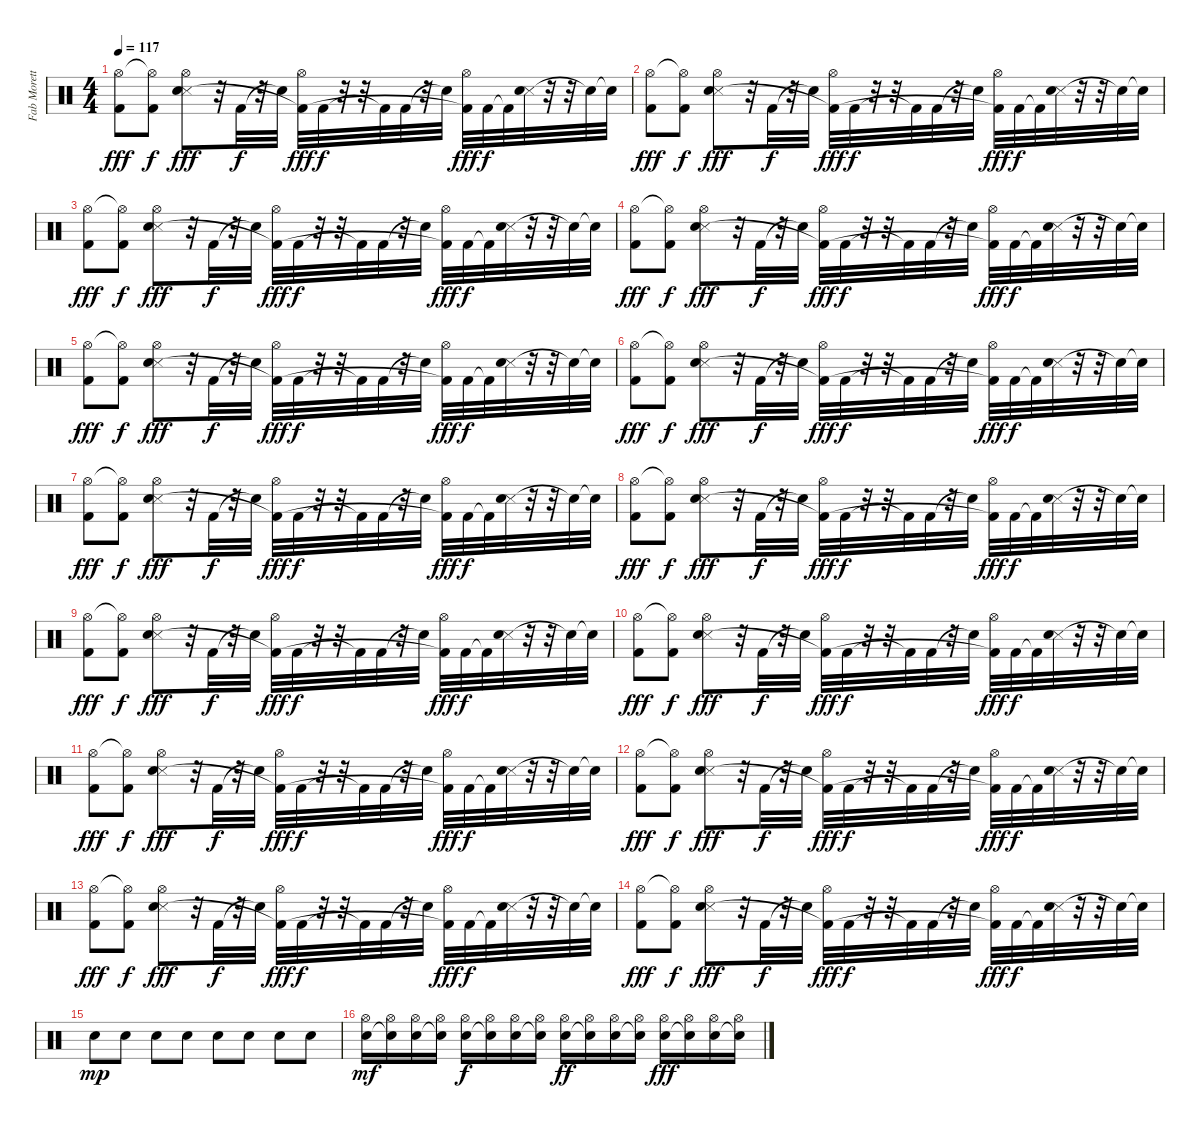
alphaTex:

\track ("Fab Moretti" "Fab Morett") {instrument percussion}
\staff {score}
\articulation defaults
\ts (4 4)
\tempo 117
\clef neutral
\ks c
("Hi-Hat (open)" "Kick (hit) 2").8{dy fff} ("Hi-Hat (open)"{t} "Kick (hit) 2").8{dy f} ("Hi-Hat (open)" "Snare (side stick) 3" "Snare (hit) 2").8{dy fff} r.32 "Kick (hit) 2".32{dy f} r.32 "Snare (hit)"{t}.32 ("Hi-Hat (open)" "Kick (hit) 2"{t}).32{dy fff} "Kick (hit) 2".32{dy f} r.32 r.32 "Kick (hit) 2"{t}.32 "Kick (hit) 2".32 r.32 "Snare (hit)"{t}.32 ("Hi-Hat (open)" "Kick (hit) 2"{t}).32{dy fff} "Kick (hit) 2".32{dy f} "Kick (hit) 2"{t}.32 ("Snare (side stick) 3" "Snare (hit) 2").32 r.32 r.32 "Snare (hit)"{t}.32 "Snare (hit)"{t}.32 |
("Hi-Hat (open)" "Kick (hit) 2").8{dy fff} ("Hi-Hat (open)"{t} "Kick (hit) 2").8{dy f} ("Hi-Hat (open)" "Snare (side stick) 3" "Snare (hit) 2").8{dy fff} r.32 "Kick (hit) 2".32{dy f} r.32 "Snare (hit)"{t}.32 ("Hi-Hat (open)" "Kick (hit) 2"{t}).32{dy fff} "Kick (hit) 2".32{dy f} r.32 r.32 "Kick (hit) 2"{t}.32 "Kick (hit) 2".32 r.32 "Snare (hit)"{t}.32 ("Hi-Hat (open)" "Kick (hit) 2"{t}).32{dy fff} "Kick (hit) 2".32{dy f} "Kick (hit) 2"{t}.32 ("Snare (side stick) 3" "Snare (hit) 2").32 r.32 r.32 "Snare (hit)"{t}.32 "Snare (hit)"{t}.32 |
("Hi-Hat (open)" "Kick (hit) 2").8{dy fff} ("Hi-Hat (open)"{t} "Kick (hit) 2").8{dy f} ("Hi-Hat (open)" "Snare (side stick) 3" "Snare (hit) 2").8{dy fff} r.32 "Kick (hit) 2".32{dy f} r.32 "Snare (hit)"{t}.32 ("Hi-Hat (open)" "Kick (hit) 2"{t}).32{dy fff} "Kick (hit) 2".32{dy f} r.32 r.32 "Kick (hit) 2"{t}.32 "Kick (hit) 2".32 r.32 "Snare (hit)"{t}.32 ("Hi-Hat (open)" "Kick (hit) 2"{t}).32{dy fff} "Kick (hit) 2".32{dy f} "Kick (hit) 2"{t}.32 ("Snare (side stick) 3" "Snare (hit) 2").32 r.32 r.32 "Snare (hit)"{t}.32 "Snare (hit)"{t}.32 |
("Hi-Hat (open)" "Kick (hit) 2").8{dy fff} ("Hi-Hat (open)"{t} "Kick (hit) 2").8{dy f} ("Hi-Hat (open)" "Snare (side stick) 3" "Snare (hit) 2").8{dy fff} r.32 "Kick (hit) 2".32{dy f} r.32 "Snare (hit)"{t}.32 ("Hi-Hat (open)" "Kick (hit) 2"{t}).32{dy fff} "Kick (hit) 2".32{dy f} r.32 r.32 "Kick (hit) 2"{t}.32 "Kick (hit) 2".32 r.32 "Snare (hit)"{t}.32 ("Hi-Hat (open)" "Kick (hit) 2"{t}).32{dy fff} "Kick (hit) 2".32{dy f} "Kick (hit) 2"{t}.32 ("Snare (side stick) 3" "Snare (hit) 2").32 r.32 r.32 "Snare (hit)"{t}.32 "Snare (hit)"{t}.32 |
("Hi-Hat (open)" "Kick (hit) 2").8{dy fff} ("Hi-Hat (open)"{t} "Kick (hit) 2").8{dy f} ("Hi-Hat (open)" "Snare (side stick) 3" "Snare (hit) 2").8{dy fff} r.32 "Kick (hit) 2".32{dy f} r.32 "Snare (hit)"{t}.32 ("Hi-Hat (open)" "Kick (hit) 2"{t}).32{dy fff} "Kick (hit) 2".32{dy f} r.32 r.32 "Kick (hit) 2"{t}.32 "Kick (hit) 2".32 r.32 "Snare (hit)"{t}.32 ("Hi-Hat (open)" "Kick (hit) 2"{t}).32{dy fff} "Kick (hit) 2".32{dy f} "Kick (hit) 2"{t}.32 ("Snare (side stick) 3" "Snare (hit) 2").32 r.32 r.32 "Snare (hit)"{t}.32 "Snare (hit)"{t}.32 |
("Hi-Hat (open)" "Kick (hit) 2").8{dy fff} ("Hi-Hat (open)"{t} "Kick (hit) 2").8{dy f} ("Hi-Hat (open)" "Snare (side stick) 3" "Snare (hit) 2").8{dy fff} r.32 "Kick (hit) 2".32{dy f} r.32 "Snare (hit)"{t}.32 ("Hi-Hat (open)" "Kick (hit) 2"{t}).32{dy fff} "Kick (hit) 2".32{dy f} r.32 r.32 "Kick (hit) 2"{t}.32 "Kick (hit) 2".32 r.32 "Snare (hit)"{t}.32 ("Hi-Hat (open)" "Kick (hit) 2"{t}).32{dy fff} "Kick (hit) 2".32{dy f} "Kick (hit) 2"{t}.32 ("Snare (side stick) 3" "Snare (hit) 2").32 r.32 r.32 "Snare (hit)"{t}.32 "Snare (hit)"{t}.32 |
("Hi-Hat (open)" "Kick (hit) 2").8{dy fff} ("Hi-Hat (open)"{t} "Kick (hit) 2").8{dy f} ("Hi-Hat (open)" "Snare (side stick) 3" "Snare (hit) 2").8{dy fff} r.32 "Kick (hit) 2".32{dy f} r.32 "Snare (hit)"{t}.32 ("Hi-Hat (open)" "Kick (hit) 2"{t}).32{dy fff} "Kick (hit) 2".32{dy f} r.32 r.32 "Kick (hit) 2"{t}.32 "Kick (hit) 2".32 r.32 "Snare (hit)"{t}.32 ("Hi-Hat (open)" "Kick (hit) 2"{t}).32{dy fff} "Kick (hit) 2".32{dy f} "Kick (hit) 2"{t}.32 ("Snare (side stick) 3" "Snare (hit) 2").32 r.32 r.32 "Snare (hit)"{t}.32 "Snare (hit)"{t}.32 |
("Hi-Hat (open)" "Kick (hit) 2").8{dy fff} ("Hi-Hat (open)"{t} "Kick (hit) 2").8{dy f} ("Hi-Hat (open)" "Snare (side stick) 3" "Snare (hit) 2").8{dy fff} r.32 "Kick (hit) 2".32{dy f} r.32 "Snare (hit)"{t}.32 ("Hi-Hat (open)" "Kick (hit) 2"{t}).32{dy fff} "Kick (hit) 2".32{dy f} r.32 r.32 "Kick (hit) 2"{t}.32 "Kick (hit) 2".32 r.32 "Snare (hit)"{t}.32 ("Hi-Hat (open)" "Kick (hit) 2"{t}).32{dy fff} "Kick (hit) 2".32{dy f} "Kick (hit) 2"{t}.32 ("Snare (side stick) 3" "Snare (hit) 2").32 r.32 r.32 "Snare (hit)"{t}.32 "Snare (hit)"{t}.32 |
("Hi-Hat (open)" "Kick (hit) 2").8{dy fff} ("Hi-Hat (open)"{t} "Kick (hit) 2").8{dy f} ("Hi-Hat (open)" "Snare (side stick) 3" "Snare (hit) 2").8{dy fff} r.32 "Kick (hit) 2".32{dy f} r.32 "Snare (hit)"{t}.32 ("Hi-Hat (open)" "Kick (hit) 2"{t}).32{dy fff} "Kick (hit) 2".32{dy f} r.32 r.32 "Kick (hit) 2"{t}.32 "Kick (hit) 2".32 r.32 "Snare (hit)"{t}.32 ("Hi-Hat (open)" "Kick (hit) 2"{t}).32{dy fff} "Kick (hit) 2".32{dy f} "Kick (hit) 2"{t}.32 ("Snare (side stick) 3" "Snare (hit) 2").32 r.32 r.32 "Snare (hit)"{t}.32 "Snare (hit)"{t}.32 |
("Hi-Hat (open)" "Kick (hit) 2").8{dy fff} ("Hi-Hat (open)"{t} "Kick (hit) 2").8{dy f} ("Hi-Hat (open)" "Snare (side stick) 3" "Snare (hit) 2").8{dy fff} r.32 "Kick (hit) 2".32{dy f} r.32 "Snare (hit)"{t}.32 ("Hi-Hat (open)" "Kick (hit) 2"{t}).32{dy fff} "Kick (hit) 2".32{dy f} r.32 r.32 "Kick (hit) 2"{t}.32 "Kick (hit) 2".32 r.32 "Snare (hit)"{t}.32 ("Hi-Hat (open)" "Kick (hit) 2"{t}).32{dy fff} "Kick (hit) 2".32{dy f} "Kick (hit) 2"{t}.32 ("Snare (side stick) 3" "Snare (hit) 2").32 r.32 r.32 "Snare (hit)"{t}.32 "Snare (hit)"{t}.32 |
("Hi-Hat (open)" "Kick (hit) 2").8{dy fff} ("Hi-Hat (open)"{t} "Kick (hit) 2").8{dy f} ("Hi-Hat (open)" "Snare (side stick) 3" "Snare (hit) 2").8{dy fff} r.32 "Kick (hit) 2".32{dy f} r.32 "Snare (hit)"{t}.32 ("Hi-Hat (open)" "Kick (hit) 2"{t}).32{dy fff} "Kick (hit) 2".32{dy f} r.32 r.32 "Kick (hit) 2"{t}.32 "Kick (hit) 2".32 r.32 "Snare (hit)"{t}.32 ("Hi-Hat (open)" "Kick (hit) 2"{t}).32{dy fff} "Kick (hit) 2".32{dy f} "Kick (hit) 2"{t}.32 ("Snare (side stick) 3" "Snare (hit) 2").32 r.32 r.32 "Snare (hit)"{t}.32 "Snare (hit)"{t}.32 |
("Hi-Hat (open)" "Kick (hit) 2").8{dy fff} ("Hi-Hat (open)"{t} "Kick (hit) 2").8{dy f} ("Hi-Hat (open)" "Snare (side stick) 3" "Snare (hit) 2").8{dy fff} r.32 "Kick (hit) 2".32{dy f} r.32 "Snare (hit)"{t}.32 ("Hi-Hat (open)" "Kick (hit) 2"{t}).32{dy fff} "Kick (hit) 2".32{dy f} r.32 r.32 "Kick (hit) 2"{t}.32 "Kick (hit) 2".32 r.32 "Snare (hit)"{t}.32 ("Hi-Hat (open)" "Kick (hit) 2"{t}).32{dy fff} "Kick (hit) 2".32{dy f} "Kick (hit) 2"{t}.32 ("Snare (side stick) 3" "Snare (hit) 2").32 r.32 r.32 "Snare (hit)"{t}.32 "Snare (hit)"{t}.32 |
("Hi-Hat (open)" "Kick (hit) 2").8{dy fff} ("Hi-Hat (open)"{t} "Kick (hit) 2").8{dy f} ("Hi-Hat (open)" "Snare (side stick) 3" "Snare (hit) 2").8{dy fff} r.32 "Kick (hit) 2".32{dy f} r.32 "Snare (hit)"{t}.32 ("Hi-Hat (open)" "Kick (hit) 2"{t}).32{dy fff} "Kick (hit) 2".32{dy f} r.32 r.32 "Kick (hit) 2"{t}.32 "Kick (hit) 2".32 r.32 "Snare (hit)"{t}.32 ("Hi-Hat (open)" "Kick (hit) 2"{t}).32{dy fff} "Kick (hit) 2".32{dy f} "Kick (hit) 2"{t}.32 ("Snare (side stick) 3" "Snare (hit) 2").32 r.32 r.32 "Snare (hit)"{t}.32 "Snare (hit)"{t}.32 |
("Hi-Hat (open)" "Kick (hit) 2").8{dy fff} ("Hi-Hat (open)"{t} "Kick (hit) 2").8{dy f} ("Hi-Hat (open)" "Snare (side stick) 3" "Snare (hit) 2").8{dy fff} r.32 "Kick (hit) 2".32{dy f} r.32 "Snare (hit)"{t}.32 ("Hi-Hat (open)" "Kick (hit) 2"{t}).32{dy fff} "Kick (hit) 2".32{dy f} r.32 r.32 "Kick (hit) 2"{t}.32 "Kick (hit) 2".32 r.32 "Snare (hit)"{t}.32 ("Hi-Hat (open)" "Kick (hit) 2"{t}).32{dy fff} "Kick (hit) 2".32{dy f} "Kick (hit) 2"{t}.32 ("Snare (side stick) 3" "Snare (hit) 2").32 r.32 r.32 "Snare (hit)"{t}.32 "Snare (hit)"{t}.32 |
"Snare (hit) 2".8{dy mp} "Snare (hit) 2".8 "Snare (hit) 2".8 "Snare (hit) 2".8 "Snare (hit) 2".8 "Snare (hit) 2".8 "Snare (hit) 2".8 "Snare (hit) 2".8 |
("Snare (hit) 2" "Hi-Hat (open)").16{dy mf} ("Snare (hit) 2"{t} "Hi-Hat (open)").16 ("Snare (hit) 2" "Hi-Hat (open)").16 ("Snare (hit) 2"{t} "Hi-Hat (open)").16 ("Snare (hit) 2" "Hi-Hat (open)").16{dy f} ("Snare (hit) 2"{t} "Hi-Hat (open)").16 ("Snare (hit) 2" "Hi-Hat (open)").16 ("Snare (hit) 2"{t} "Hi-Hat (open)").16 ("Snare (hit) 2" "Hi-Hat (open)").16{dy ff} ("Snare (hit) 2"{t} "Hi-Hat (open)").16 ("Snare (hit) 2" "Hi-Hat (open)").16 ("Snare (hit) 2"{t} "Hi-Hat (open)").16 ("Snare (hit) 2" "Hi-Hat (open)").16{dy fff} ("Snare (hit) 2"{t} "Hi-Hat (open)").16 ("Snare (hit) 2" "Hi-Hat (open)").16 ("Snare (hit) 2"{t} "Hi-Hat (open)").16
